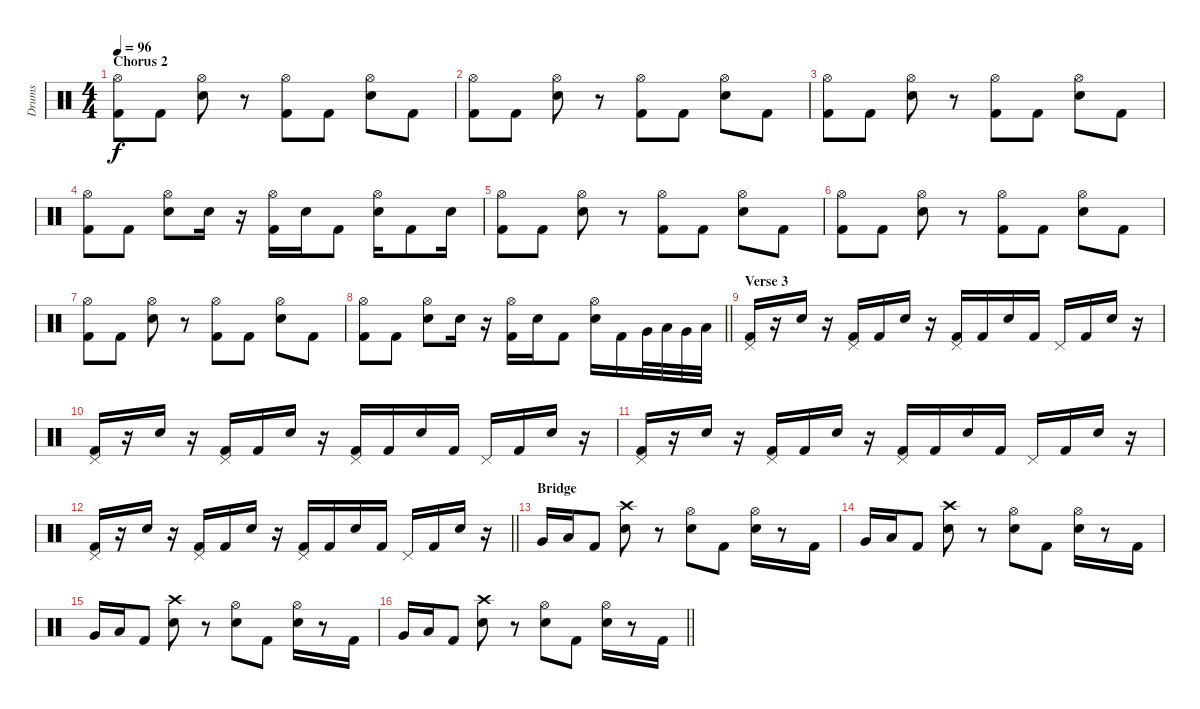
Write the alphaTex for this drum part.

\track ("Drums" "Drums") {instrument percussion}
\staff {score}
\articulation defaults
\ts (4 4)
\section ("" "Chorus 2")
\tempo 96
\clef neutral
\ks c
("Hi-Hat (open)" "Kick (hit) 2").8{dy f} "Kick (hit) 2".8 ("Hi-Hat (open)" "Electric Snare (hit)").8 r.8 ("Hi-Hat (open)" "Kick (hit) 2").8 "Kick (hit) 2".8 ("Hi-Hat (open)" "Electric Snare (hit)").8 "Kick (hit) 2".8 |
("Hi-Hat (open)" "Kick (hit) 2").8 "Kick (hit) 2".8 ("Hi-Hat (open)" "Electric Snare (hit)").8 r.8 ("Hi-Hat (open)" "Kick (hit) 2").8 "Kick (hit) 2".8 ("Hi-Hat (open)" "Electric Snare (hit)").8 "Kick (hit) 2".8 |
("Hi-Hat (open)" "Kick (hit) 2").8 "Kick (hit) 2".8 ("Hi-Hat (open)" "Electric Snare (hit)").8 r.8 ("Hi-Hat (open)" "Kick (hit) 2").8 "Kick (hit) 2".8 ("Hi-Hat (open)" "Electric Snare (hit)").8 "Kick (hit) 2".8 |
("Hi-Hat (open)" "Kick (hit) 2").8 "Kick (hit) 2".8 ("Hi-Hat (open)" "Electric Snare (hit)").8 "Electric Snare (hit)".16 r.16 ("Hi-Hat (open)" "Kick (hit) 2").16 "Electric Snare (hit)".16 "Kick (hit) 2".8 ("Hi-Hat (open)" "Electric Snare (hit)").16 "Kick (hit) 2".8 "Electric Snare (hit)".16 |
("Hi-Hat (open)" "Kick (hit) 2").8 "Kick (hit) 2".8 ("Hi-Hat (open)" "Electric Snare (hit)").8 r.8 ("Hi-Hat (open)" "Kick (hit) 2").8 "Kick (hit) 2".8 ("Hi-Hat (open)" "Electric Snare (hit)").8 "Kick (hit) 2".8 |
("Hi-Hat (open)" "Kick (hit) 2").8 "Kick (hit) 2".8 ("Hi-Hat (open)" "Electric Snare (hit)").8 r.8 ("Hi-Hat (open)" "Kick (hit) 2").8 "Kick (hit) 2".8 ("Hi-Hat (open)" "Electric Snare (hit)").8 "Kick (hit) 2".8 |
("Hi-Hat (open)" "Kick (hit) 2").8 "Kick (hit) 2".8 ("Hi-Hat (open)" "Electric Snare (hit)").8 r.8 ("Hi-Hat (open)" "Kick (hit) 2").8 "Kick (hit) 2".8 ("Hi-Hat (open)" "Electric Snare (hit)").8 "Kick (hit) 2".8 |
\barLineRight lightlight
("Hi-Hat (open)" "Kick (hit) 2").8 "Kick (hit) 2".8 ("Hi-Hat (open)" "Electric Snare (hit)").8 "Electric Snare (hit)".16 r.16 ("Hi-Hat (open)" "Kick (hit) 2").16 "Electric Snare (hit)".16 "Kick (hit) 2".8 ("Hi-Hat (open)" "Electric Snare (hit)").16 "Kick (hit) 2".16 "Very Low Tom (hit)".32 "Low Floor Tom (hit)".32 "Very Low Tom (hit)".32 "Low Tom (hit)".32 |
\section ("" "Verse 3")
("Pedal Hi-Hat (hit)" "Kick (hit) 2").16 r.16 "Electric Snare (hit)".16 r.16 ("Pedal Hi-Hat (hit)" "Kick (hit) 2").16 "Kick (hit) 2".16 "Electric Snare (hit)".16 r.16 ("Pedal Hi-Hat (hit)" "Kick (hit) 2").16 "Kick (hit) 2".16 "Electric Snare (hit)".16 "Kick (hit) 2".16 "Pedal Hi-Hat (hit)".16 "Kick (hit) 2".16 "Electric Snare (hit)".16 r.16 |
("Pedal Hi-Hat (hit)" "Kick (hit) 2").16 r.16 "Electric Snare (hit)".16 r.16 ("Pedal Hi-Hat (hit)" "Kick (hit) 2").16 "Kick (hit) 2".16 "Electric Snare (hit)".16 r.16 ("Pedal Hi-Hat (hit)" "Kick (hit) 2").16 "Kick (hit) 2".16 "Electric Snare (hit)".16 "Kick (hit) 2".16 "Pedal Hi-Hat (hit)".16 "Kick (hit) 2".16 "Electric Snare (hit)".16 r.16 |
("Pedal Hi-Hat (hit)" "Kick (hit) 2").16 r.16 "Electric Snare (hit)".16 r.16 ("Pedal Hi-Hat (hit)" "Kick (hit) 2").16 "Kick (hit) 2".16 "Electric Snare (hit)".16 r.16 ("Pedal Hi-Hat (hit)" "Kick (hit) 2").16 "Kick (hit) 2".16 "Electric Snare (hit)".16 "Kick (hit) 2".16 "Pedal Hi-Hat (hit)".16 "Kick (hit) 2".16 "Electric Snare (hit)".16 r.16 |
\barLineRight lightlight
("Pedal Hi-Hat (hit)" "Kick (hit) 2").16 r.16 "Electric Snare (hit)".16 r.16 ("Pedal Hi-Hat (hit)" "Kick (hit) 2").16 "Kick (hit) 2".16 "Electric Snare (hit)".16 r.16 ("Pedal Hi-Hat (hit)" "Kick (hit) 2").16 "Kick (hit) 2".16 "Electric Snare (hit)".16 "Kick (hit) 2".16 "Pedal Hi-Hat (hit)".16 "Kick (hit) 2".16 "Electric Snare (hit)".16 r.16 |
\section ("" "Bridge")
"Very Low Tom (hit)".16 "Low Tom (hit)".16 "Kick (hit) 2".8 ("Crash high (hit)" "Electric Snare (hit)").8 r.8 ("Hi-Hat (open)" "Electric Snare (hit)").8 "Kick (hit) 2".8 ("Hi-Hat (open)" "Electric Snare (hit)").16 r.8 "Kick (hit) 2".16 |
"Very Low Tom (hit)".16 "Low Tom (hit)".16 "Kick (hit) 2".8 ("Crash high (hit)" "Electric Snare (hit)").8 r.8 ("Hi-Hat (open)" "Electric Snare (hit)").8 "Kick (hit) 2".8 ("Hi-Hat (open)" "Electric Snare (hit)").16 r.8 "Kick (hit) 2".16 |
"Very Low Tom (hit)".16 "Low Tom (hit)".16 "Kick (hit) 2".8 ("Crash high (hit)" "Electric Snare (hit)").8 r.8 ("Hi-Hat (open)" "Electric Snare (hit)").8 "Kick (hit) 2".8 ("Hi-Hat (open)" "Electric Snare (hit)").16 r.8 "Kick (hit) 2".16 |
\barLineRight lightlight "Very Low Tom (hit)".16 "Low Tom (hit)".16 "Kick (hit) 2".8
("Crash high (hit)" "Electric Snare (hit)").8 r.8 ("Hi-Hat (open)" "Electric Snare (hit)").8 "Kick (hit) 2".8 ("Hi-Hat (open)" "Electric Snare (hit)").16 r.8 "Kick (hit) 2".16
